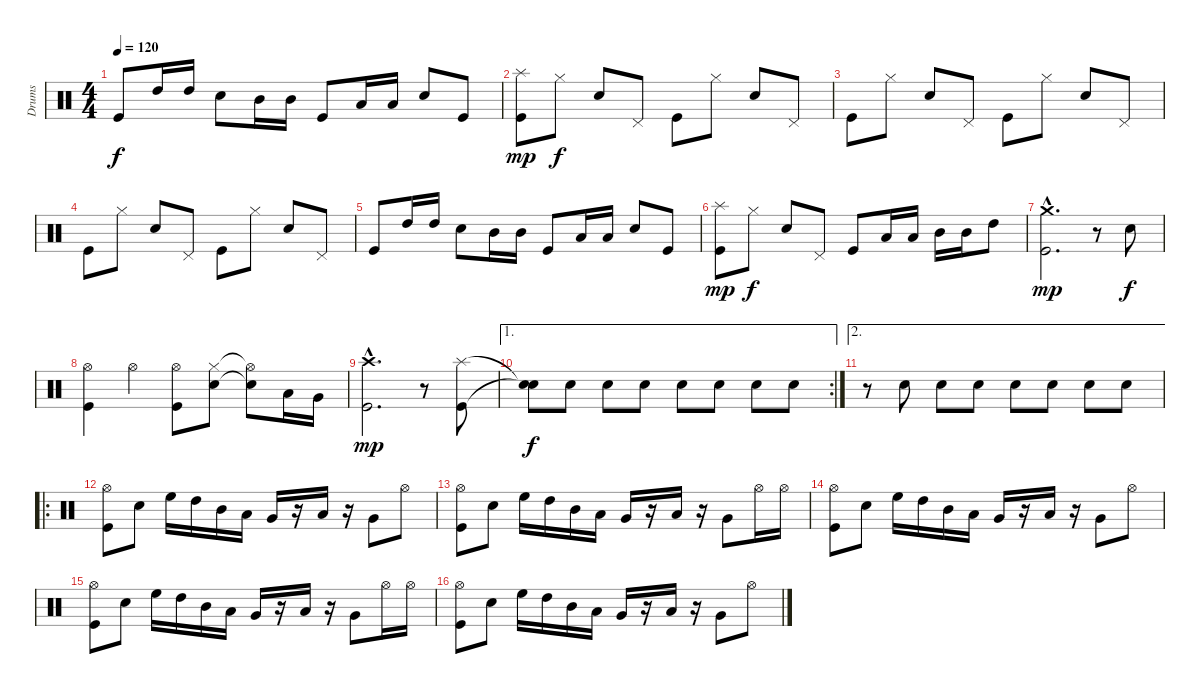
\track ("Drums" "Drums") {instrument percussion}
\staff {score}
\articulation defaults
\ts (4 4)
\tempo 120
\clef neutral
\ks c "Kick (hit)".8{dy f} "High Tom (hit)".16 "High Tom (hit)".16 "Snare (hit) 2".8 "Mid Tom (hit)".16 "Mid Tom (hit)".16 "Kick (hit)".8 "Low Tom (hit)".16 "Low Tom (hit)".16 "Snare (hit) 2".8 "Kick (hit)".8
|
("Splash (hit)" "Kick (hit)").8{dy mp} "Hi-Hat (closed)".8{dy f} "Snare (hit) 2".8 "Pedal Hi-Hat (hit)".8 "Kick (hit)".8 "Hi-Hat (closed)".8 "Snare (hit) 2".8 "Pedal Hi-Hat (hit)".8 |
"Kick (hit)".8 "Hi-Hat (closed)".8 "Snare (hit) 2".8 "Pedal Hi-Hat (hit)".8 "Kick (hit)".8 "Hi-Hat (closed)".8 "Snare (hit) 2".8 "Pedal Hi-Hat (hit)".8 |
"Kick (hit)".8 "Hi-Hat (closed)".8 "Snare (hit) 2".8 "Pedal Hi-Hat (hit)".8 "Kick (hit)".8 "Hi-Hat (closed)".8 "Snare (hit) 2".8 "Pedal Hi-Hat (hit)".8 |
"Kick (hit)".8 "High Tom (hit)".16 "High Tom (hit)".16 "Snare (hit) 2".8 "Mid Tom (hit)".16 "Mid Tom (hit)".16 "Kick (hit)".8 "Low Tom (hit)".16 "Low Tom (hit)".16 "Snare (hit) 2".8 "Kick (hit)".8 |
("Splash (hit)" "Kick (hit)").8{dy mp} "Hi-Hat (closed)".8{dy f} "Snare (hit) 2".8 "Pedal Hi-Hat (hit)".8 "Kick (hit)".8 "Low Tom (hit)".16 "Low Tom (hit)".16 "Mid Tom (hit)".16 "Mid Tom (hit)".16 "High Tom (hit)".8 |
("Crash medium (hit)"{hac} "Kick (hit)"{hac}).2{d dy mp} r.8 "Snare (hit) 2".8{dy f} |
("Hi-Hat (open)" "Kick (hit)").4 "Hi-Hat (open)".4 ("Hi-Hat (open)" "Kick (hit)").8 ("Hi-Hat (closed)" "Electric Snare (hit)").8 ("Hi-Hat (open)"{t} "Snare (hit)"{t}).8 "Low Tom (hit)".16 "Very Low Tom (hit)".16 |
("Crash high (hit)"{hac} "Kick (hit)"{hac}).2{d dy mp} r.8 ("Splash (hit)" "Kick (hit)").8 |
\ae 1
\rc 2
("Snare (hit)"{t} "Snare (hit)"{t}).8{dy f} "Snare (hit) 2".8 "Snare (hit) 2".8 "Snare (hit) 2".8 "Snare (hit) 2".8 "Snare (hit) 2".8 "Snare (hit) 2".8 "Snare (hit) 2".8 |
\ae 2
r.8 "Snare (hit) 2".8 "Snare (hit) 2".8 "Snare (hit) 2".8 "Snare (hit) 2".8 "Snare (hit) 2".8 "Snare (hit) 2".8 "Snare (hit) 2".8 |
\ro
("Hi-Hat (open)" "Kick (hit)").8 "Snare (hit) 2".8 "High Floor Tom (hit)".16 "High Tom (hit)".16 "Mid Tom (hit)".16 "Low Tom (hit)".16 "Very Low Tom (hit)".16 r.16 "Low Floor Tom (hit)".16 r.16 "Very Low Tom (hit)".8 "Hi-Hat (open)".8 |
("Hi-Hat (open)" "Kick (hit)").8 "Snare (hit) 2".8 "High Floor Tom (hit)".16 "High Tom (hit)".16 "Mid Tom (hit)".16 "Low Tom (hit)".16 "Very Low Tom (hit)".16 r.16 "Low Floor Tom (hit)".16 r.16 "Very Low Tom (hit)".8 "Hi-Hat (open)".16 "Hi-Hat (open)".16 |
("Hi-Hat (open)" "Kick (hit)").8 "Snare (hit) 2".8 "High Floor Tom (hit)".16 "High Tom (hit)".16 "Mid Tom (hit)".16 "Low Tom (hit)".16 "Very Low Tom (hit)".16 r.16 "Low Floor Tom (hit)".16 r.16 "Very Low Tom (hit)".8 "Hi-Hat (open)".8 |
("Hi-Hat (open)" "Kick (hit)").8 "Snare (hit) 2".8 "High Floor Tom (hit)".16 "High Tom (hit)".16 "Mid Tom (hit)".16 "Low Tom (hit)".16 "Very Low Tom (hit)".16 r.16 "Low Floor Tom (hit)".16 r.16 "Very Low Tom (hit)".8 "Hi-Hat (open)".16 "Hi-Hat (open)".16 |
("Hi-Hat (open)" "Kick (hit)").8 "Snare (hit) 2".8 "High Floor Tom (hit)".16 "High Tom (hit)".16 "Mid Tom (hit)".16 "Low Tom (hit)".16 "Very Low Tom (hit)".16 r.16 "Low Floor Tom (hit)".16 r.16 "Very Low Tom (hit)".8 "Hi-Hat (open)".8
